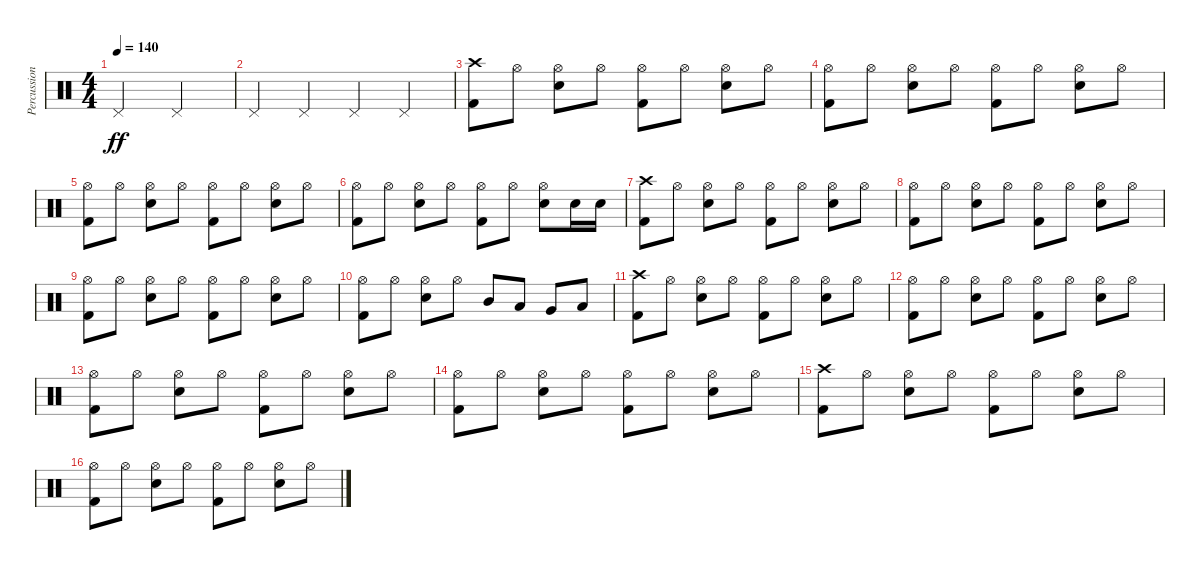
\track ("Percussion" "Percussion") {instrument percussion}
\staff {score}
\articulation defaults
\ts (4 4)
\tempo 140
\clef neutral
\ks c "Pedal Hi-Hat (hit)".2{dy ff} "Pedal Hi-Hat (hit)".2
|
"Pedal Hi-Hat (hit)".4 "Pedal Hi-Hat (hit)".4 "Pedal Hi-Hat (hit)".4 "Pedal Hi-Hat (hit)".4 |
("Crash high (hit)" "Kick (hit) 2").8 "Hi-Hat (open)".8 ("Hi-Hat (open)" "Snare (hit) 2").8 "Hi-Hat (open)".8 ("Hi-Hat (open)" "Kick (hit) 2").8 "Hi-Hat (open)".8 ("Hi-Hat (open)" "Snare (hit) 2").8 "Hi-Hat (open)".8 |
("Hi-Hat (open)" "Kick (hit) 2").8 "Hi-Hat (open)".8 ("Hi-Hat (open)" "Snare (hit) 2").8 "Hi-Hat (open)".8 ("Hi-Hat (open)" "Kick (hit) 2").8 "Hi-Hat (open)".8 ("Hi-Hat (open)" "Snare (hit) 2").8 "Hi-Hat (open)".8 |
("Hi-Hat (open)" "Kick (hit) 2").8 "Hi-Hat (open)".8 ("Hi-Hat (open)" "Snare (hit) 2").8 "Hi-Hat (open)".8 ("Hi-Hat (open)" "Kick (hit) 2").8 "Hi-Hat (open)".8 ("Hi-Hat (open)" "Snare (hit) 2").8 "Hi-Hat (open)".8 |
("Hi-Hat (open)" "Kick (hit) 2").8 "Hi-Hat (open)".8 ("Hi-Hat (open)" "Snare (hit) 2").8 "Hi-Hat (open)".8 ("Hi-Hat (open)" "Kick (hit) 2").8 "Hi-Hat (open)".8 ("Hi-Hat (open)" "Snare (hit) 2").8 "Snare (hit) 2".16 "Snare (hit) 2".16 |
("Crash high (hit)" "Kick (hit) 2").8 "Hi-Hat (open)".8 ("Hi-Hat (open)" "Snare (hit) 2").8 "Hi-Hat (open)".8 ("Hi-Hat (open)" "Kick (hit) 2").8 "Hi-Hat (open)".8 ("Hi-Hat (open)" "Snare (hit) 2").8 "Hi-Hat (open)".8 |
("Hi-Hat (open)" "Kick (hit) 2").8 "Hi-Hat (open)".8 ("Hi-Hat (open)" "Snare (hit) 2").8 "Hi-Hat (open)".8 ("Hi-Hat (open)" "Kick (hit) 2").8 "Hi-Hat (open)".8 ("Hi-Hat (open)" "Snare (hit) 2").8 "Hi-Hat (open)".8 |
("Hi-Hat (open)" "Kick (hit) 2").8 "Hi-Hat (open)".8 ("Hi-Hat (open)" "Snare (hit) 2").8 "Hi-Hat (open)".8 ("Hi-Hat (open)" "Kick (hit) 2").8 "Hi-Hat (open)".8 ("Hi-Hat (open)" "Snare (hit) 2").8 "Hi-Hat (open)".8 |
("Hi-Hat (open)" "Kick (hit) 2").8 "Hi-Hat (open)".8 ("Hi-Hat (open)" "Snare (hit) 2").8 "Hi-Hat (open)".8 "Mid Tom (hit)".8 "Low Tom (hit)".8 "Very Low Tom (hit)".8 "Low Floor Tom (hit)".8 |
("Crash high (hit)" "Kick (hit) 2").8 "Hi-Hat (open)".8 ("Hi-Hat (open)" "Snare (hit) 2").8 "Hi-Hat (open)".8 ("Hi-Hat (open)" "Kick (hit) 2").8 "Hi-Hat (open)".8 ("Hi-Hat (open)" "Snare (hit) 2").8 "Hi-Hat (open)".8 |
("Hi-Hat (open)" "Kick (hit) 2").8 "Hi-Hat (open)".8 ("Hi-Hat (open)" "Snare (hit) 2").8 "Hi-Hat (open)".8 ("Hi-Hat (open)" "Kick (hit) 2").8 "Hi-Hat (open)".8 ("Hi-Hat (open)" "Snare (hit) 2").8 "Hi-Hat (open)".8 |
("Hi-Hat (open)" "Kick (hit) 2").8 "Hi-Hat (open)".8 ("Hi-Hat (open)" "Snare (hit) 2").8 "Hi-Hat (open)".8 ("Hi-Hat (open)" "Kick (hit) 2").8 "Hi-Hat (open)".8 ("Hi-Hat (open)" "Snare (hit) 2").8 "Hi-Hat (open)".8 |
("Hi-Hat (open)" "Kick (hit) 2").8 "Hi-Hat (open)".8 ("Hi-Hat (open)" "Snare (hit) 2").8 "Hi-Hat (open)".8 ("Hi-Hat (open)" "Kick (hit) 2").8 "Hi-Hat (open)".8 ("Hi-Hat (open)" "Snare (hit) 2").8 "Hi-Hat (open)".8 |
("Crash high (hit)" "Kick (hit) 2").8 "Hi-Hat (open)".8 ("Hi-Hat (open)" "Snare (hit) 2").8 "Hi-Hat (open)".8 ("Hi-Hat (open)" "Kick (hit) 2").8 "Hi-Hat (open)".8 ("Hi-Hat (open)" "Snare (hit) 2").8 "Hi-Hat (open)".8 |
("Hi-Hat (open)" "Kick (hit) 2").8 "Hi-Hat (open)".8 ("Hi-Hat (open)" "Snare (hit) 2").8 "Hi-Hat (open)".8 ("Hi-Hat (open)" "Kick (hit) 2").8 "Hi-Hat (open)".8 ("Hi-Hat (open)" "Snare (hit) 2").8 "Hi-Hat (open)".8
